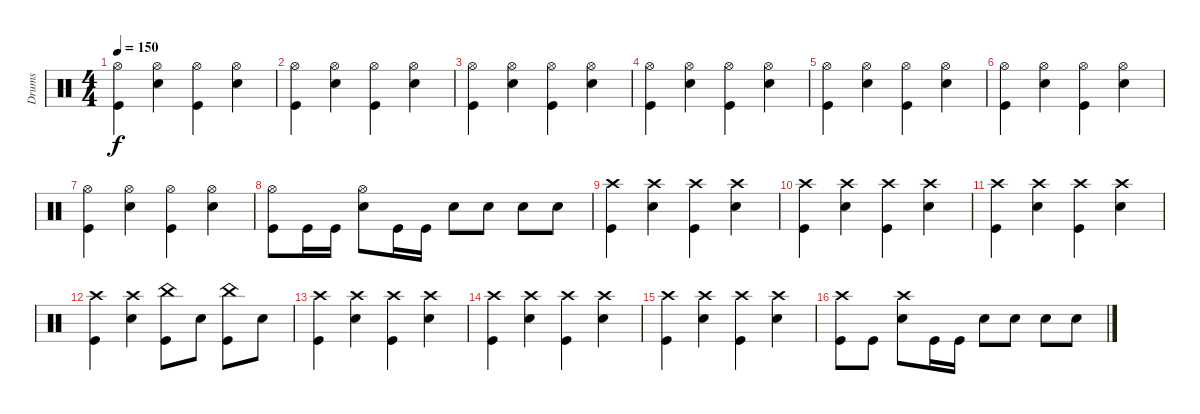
\track ("Drums" "Drums") {instrument percussion}
\staff {score}
\articulation defaults
\ts (4 4)
\tempo 150
\clef neutral
\ks c
("Kick (hit)" "Hi-Hat (open)").4{dy f} ("Snare (hit) 2" "Hi-Hat (open)").4 ("Kick (hit)" "Hi-Hat (open)").4 ("Snare (hit) 2" "Hi-Hat (open)").4 |
("Kick (hit)" "Hi-Hat (open)").4 ("Snare (hit) 2" "Hi-Hat (open)").4 ("Kick (hit)" "Hi-Hat (open)").4 ("Snare (hit) 2" "Hi-Hat (open)").4 |
("Kick (hit)" "Hi-Hat (open)").4 ("Snare (hit) 2" "Hi-Hat (open)").4 ("Kick (hit)" "Hi-Hat (open)").4 ("Snare (hit) 2" "Hi-Hat (open)").4 |
("Kick (hit)" "Hi-Hat (open)").4 ("Snare (hit) 2" "Hi-Hat (open)").4 ("Kick (hit)" "Hi-Hat (open)").4 ("Snare (hit) 2" "Hi-Hat (open)").4 |
("Kick (hit)" "Hi-Hat (open)").4 ("Snare (hit) 2" "Hi-Hat (open)").4 ("Kick (hit)" "Hi-Hat (open)").4 ("Snare (hit) 2" "Hi-Hat (open)").4 |
("Kick (hit)" "Hi-Hat (open)").4 ("Snare (hit) 2" "Hi-Hat (open)").4 ("Kick (hit)" "Hi-Hat (open)").4 ("Snare (hit) 2" "Hi-Hat (open)").4 |
("Kick (hit)" "Hi-Hat (open)").4 ("Snare (hit) 2" "Hi-Hat (open)").4 ("Kick (hit)" "Hi-Hat (open)").4 ("Snare (hit) 2" "Hi-Hat (open)").4 |
("Kick (hit)" "Hi-Hat (open)").8 "Kick (hit)".16 "Kick (hit)".16 ("Snare (hit) 2" "Hi-Hat (open)").8 "Kick (hit)".16 "Kick (hit)".16 "Snare (hit) 2".8 "Snare (hit) 2".8 "Snare (hit) 2".8 "Snare (hit) 2".8 |
("Kick (hit)" "Crash high (hit)").4 ("Snare (hit) 2" "Crash high (hit)").4 ("Kick (hit)" "Crash high (hit)").4 ("Snare (hit) 2" "Crash high (hit)").4 |
("Kick (hit)" "Crash high (hit)").4 ("Snare (hit) 2" "Crash high (hit)").4 ("Kick (hit)" "Crash high (hit)").4 ("Snare (hit) 2" "Crash high (hit)").4 |
("Kick (hit)" "Crash high (hit)").4 ("Snare (hit) 2" "Crash high (hit)").4 ("Kick (hit)" "Crash high (hit)").4 ("Snare (hit) 2" "Crash high (hit)").4 |
("Kick (hit)" "Crash high (hit)").4 ("Snare (hit) 2" "Crash high (hit)").4 ("Kick (hit)" "China (hit)").8 "Snare (hit) 2".8 ("Kick (hit)" "China (hit)").8 "Snare (hit) 2".8 |
("Kick (hit)" "Crash high (hit)").4 ("Snare (hit) 2" "Crash high (hit)").4 ("Kick (hit)" "Crash high (hit)").4 ("Snare (hit) 2" "Crash high (hit)").4 |
("Kick (hit)" "Crash high (hit)").4 ("Snare (hit) 2" "Crash high (hit)").4 ("Kick (hit)" "Crash high (hit)").4 ("Snare (hit) 2" "Crash high (hit)").4 |
("Kick (hit)" "Crash high (hit)").4 ("Snare (hit) 2" "Crash high (hit)").4 ("Kick (hit)" "Crash high (hit)").4 ("Snare (hit) 2" "Crash high (hit)").4 |
("Kick (hit)" "Crash high (hit)").8 "Kick (hit)".8 ("Snare (hit) 2" "Crash high (hit)").8 "Kick (hit)".16 "Kick (hit)".16 "Snare (hit) 2".8 "Snare (hit) 2".8 "Snare (hit) 2".8 "Snare (hit) 2".8
